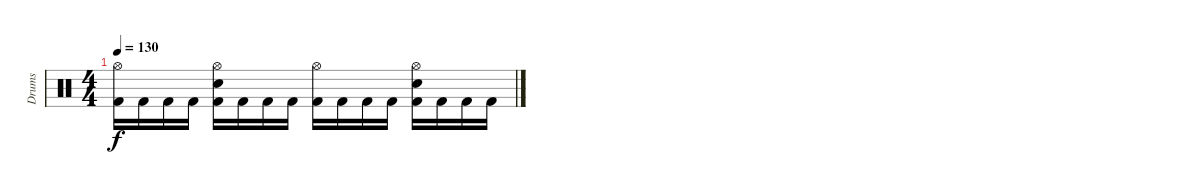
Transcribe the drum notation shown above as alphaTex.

\track ("Drums" "Drums") {instrument percussion}
\staff {score}
\articulation defaults
\ts (4 4)
\tempo 130
\clef neutral
\ks c
("Hi-Hat (open)" "Kick (hit) 2").16{dy f} "Kick (hit) 2".16 "Kick (hit) 2".16 "Kick (hit) 2".16 ("Hi-Hat (open)" "Electric Snare (hit)" "Kick (hit) 2").16 "Kick (hit) 2".16 "Kick (hit) 2".16 "Kick (hit) 2".16 ("Hi-Hat (open)" "Kick (hit) 2").16 "Kick (hit) 2".16 "Kick (hit) 2".16 "Kick (hit) 2".16 ("Hi-Hat (open)" "Electric Snare (hit)" "Kick (hit) 2").16 "Kick (hit) 2".16 "Kick (hit) 2".16 "Kick (hit) 2".16
